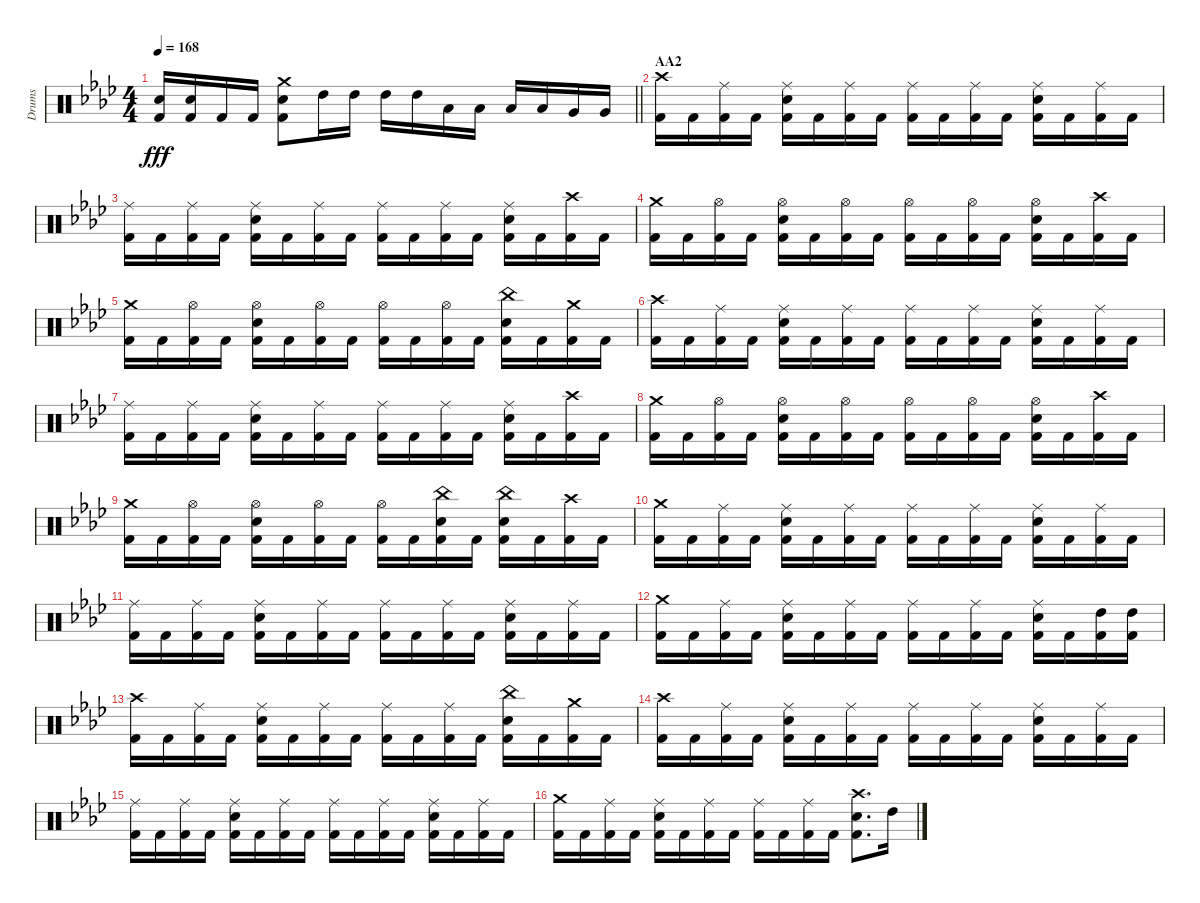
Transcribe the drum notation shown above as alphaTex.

\track ("Drums" "Drums") {instrument percussion}
\staff {score}
\articulation defaults
\ts (4 4)
\tempo 168
\clef neutral
\barLineRight lightlight
\ks fminor
("Snare (hit) 2" "Kick (hit) 2").16{dy fff} ("Snare (hit) 2" "Kick (hit) 2").16 "Kick (hit) 2".16 "Kick (hit) 2".16 ("Crash medium (hit)" "Snare (hit) 2" "Kick (hit) 2").8 "High Tom (hit)".16 "High Tom (hit)".16 "High Tom (hit)".16 "High Tom (hit)".16 "Low Tom (hit)".16 "Low Tom (hit)".16 "Low Tom (hit)".16 "Low Tom (hit)".16 "Very Low Tom (hit)".16 "Very Low Tom (hit)".16 |
\section ("" "AA2")
("Crash high (hit)" "Kick (hit) 2").16 "Kick (hit) 2".16 ("Ride (middle)" "Kick (hit) 2").16 "Kick (hit) 2".16 ("Snare (hit) 2" "Ride (middle)" "Kick (hit) 2").16 "Kick (hit) 2".16 ("Ride (middle)" "Kick (hit) 2").16 "Kick (hit) 2".16 ("Ride (middle)" "Kick (hit) 2").16 "Kick (hit) 2".16 ("Ride (middle)" "Kick (hit) 2").16 "Kick (hit) 2".16 ("Snare (hit) 2" "Ride (middle)" "Kick (hit) 2").16 "Kick (hit) 2".16 ("Ride (middle)" "Kick (hit) 2").16 "Kick (hit) 2".16 |
("Ride (middle)" "Kick (hit) 2").16 "Kick (hit) 2".16 ("Ride (middle)" "Kick (hit) 2").16 "Kick (hit) 2".16 ("Snare (hit) 2" "Ride (middle)" "Kick (hit) 2").16 "Kick (hit) 2".16 ("Ride (middle)" "Kick (hit) 2").16 "Kick (hit) 2".16 ("Ride (middle)" "Kick (hit) 2").16 "Kick (hit) 2".16 ("Ride (middle)" "Kick (hit) 2").16 "Kick (hit) 2".16 ("Snare (hit) 2" "Ride (middle)" "Kick (hit) 2").16 "Kick (hit) 2".16 ("Crash high (hit)" "Kick (hit) 2").16 "Kick (hit) 2".16 |
("Crash medium (hit)" "Kick (hit) 2").16 "Kick (hit) 2".16 ("Hi-Hat (open)" "Kick (hit) 2").16 "Kick (hit) 2".16 ("Snare (hit) 2" "Hi-Hat (open)" "Kick (hit) 2").16 "Kick (hit) 2".16 ("Hi-Hat (open)" "Kick (hit) 2").16 "Kick (hit) 2".16 ("Hi-Hat (open)" "Kick (hit) 2").16 "Kick (hit) 2".16 ("Hi-Hat (open)" "Kick (hit) 2").16 "Kick (hit) 2".16 ("Hi-Hat (open)" "Snare (hit) 2" "Kick (hit) 2").16 "Kick (hit) 2".16 ("Crash high (hit)" "Kick (hit) 2").16 "Kick (hit) 2".16 |
("Crash medium (hit)" "Kick (hit) 2").16 "Kick (hit) 2".16 ("Hi-Hat (open)" "Kick (hit) 2").16 "Kick (hit) 2".16 ("Snare (hit) 2" "Hi-Hat (open)" "Kick (hit) 2").16 "Kick (hit) 2".16 ("Hi-Hat (open)" "Kick (hit) 2").16 "Kick (hit) 2".16 ("Hi-Hat (open)" "Kick (hit) 2").16 "Kick (hit) 2".16 ("Hi-Hat (open)" "Kick (hit) 2").16 "Kick (hit) 2".16 ("China (hit)" "Snare (hit) 2" "Kick (hit) 2").16 "Kick (hit) 2".16 ("Crash medium (hit)" "Kick (hit) 2").16 "Kick (hit) 2".16 |
("Crash high (hit)" "Kick (hit) 2").16 "Kick (hit) 2".16 ("Ride (middle)" "Kick (hit) 2").16 "Kick (hit) 2".16 ("Snare (hit) 2" "Ride (middle)" "Kick (hit) 2").16 "Kick (hit) 2".16 ("Ride (middle)" "Kick (hit) 2").16 "Kick (hit) 2".16 ("Ride (middle)" "Kick (hit) 2").16 "Kick (hit) 2".16 ("Ride (middle)" "Kick (hit) 2").16 "Kick (hit) 2".16 ("Snare (hit) 2" "Ride (middle)" "Kick (hit) 2").16 "Kick (hit) 2".16 ("Ride (middle)" "Kick (hit) 2").16 "Kick (hit) 2".16 |
("Ride (middle)" "Kick (hit) 2").16 "Kick (hit) 2".16 ("Ride (middle)" "Kick (hit) 2").16 "Kick (hit) 2".16 ("Snare (hit) 2" "Ride (middle)" "Kick (hit) 2").16 "Kick (hit) 2".16 ("Ride (middle)" "Kick (hit) 2").16 "Kick (hit) 2".16 ("Ride (middle)" "Kick (hit) 2").16 "Kick (hit) 2".16 ("Ride (middle)" "Kick (hit) 2").16 "Kick (hit) 2".16 ("Snare (hit) 2" "Ride (middle)" "Kick (hit) 2").16 "Kick (hit) 2".16 ("Crash high (hit)" "Kick (hit) 2").16 "Kick (hit) 2".16 |
("Crash medium (hit)" "Kick (hit) 2").16 "Kick (hit) 2".16 ("Hi-Hat (open)" "Kick (hit) 2").16 "Kick (hit) 2".16 ("Snare (hit) 2" "Hi-Hat (open)" "Kick (hit) 2").16 "Kick (hit) 2".16 ("Hi-Hat (open)" "Kick (hit) 2").16 "Kick (hit) 2".16 ("Hi-Hat (open)" "Kick (hit) 2").16 "Kick (hit) 2".16 ("Hi-Hat (open)" "Kick (hit) 2").16 "Kick (hit) 2".16 ("Hi-Hat (open)" "Snare (hit) 2" "Kick (hit) 2").16 "Kick (hit) 2".16 ("Crash high (hit)" "Kick (hit) 2").16 "Kick (hit) 2".16 |
("Crash medium (hit)" "Kick (hit) 2").16 "Kick (hit) 2".16 ("Hi-Hat (open)" "Kick (hit) 2").16 "Kick (hit) 2".16 ("Hi-Hat (open)" "Snare (hit) 2" "Kick (hit) 2").16 "Kick (hit) 2".16 ("Hi-Hat (open)" "Kick (hit) 2").16 "Kick (hit) 2".16 ("Hi-Hat (open)" "Kick (hit) 2").16 "Kick (hit) 2".16 ("China (hit)" "Snare (hit) 2" "Kick (hit) 2").16 "Kick (hit) 2".16 ("China (hit)" "Snare (hit) 2" "Kick (hit) 2").16 "Kick (hit) 2".16 ("Crash high (hit)" "Kick (hit) 2").16 "Kick (hit) 2".16 |
("Crash medium (hit)" "Kick (hit) 2").16 "Kick (hit) 2".16 ("Ride (middle)" "Kick (hit) 2").16 "Kick (hit) 2".16 ("Snare (hit) 2" "Ride (middle)" "Kick (hit) 2").16 "Kick (hit) 2".16 ("Ride (middle)" "Kick (hit) 2").16 "Kick (hit) 2".16 ("Ride (middle)" "Kick (hit) 2").16 "Kick (hit) 2".16 ("Ride (middle)" "Kick (hit) 2").16 "Kick (hit) 2".16 ("Snare (hit) 2" "Ride (middle)" "Kick (hit) 2").16 "Kick (hit) 2".16 ("Ride (middle)" "Kick (hit) 2").16 "Kick (hit) 2".16 |
("Ride (middle)" "Kick (hit) 2").16 "Kick (hit) 2".16 ("Ride (middle)" "Kick (hit) 2").16 "Kick (hit) 2".16 ("Snare (hit) 2" "Ride (middle)" "Kick (hit) 2").16 "Kick (hit) 2".16 ("Ride (middle)" "Kick (hit) 2").16 "Kick (hit) 2".16 ("Ride (middle)" "Kick (hit) 2").16 "Kick (hit) 2".16 ("Ride (middle)" "Kick (hit) 2").16 "Kick (hit) 2".16 ("Snare (hit) 2" "Ride (middle)" "Kick (hit) 2").16 "Kick (hit) 2".16 ("Ride (middle)" "Kick (hit) 2").16 "Kick (hit) 2".16 |
("Crash medium (hit)" "Kick (hit) 2").16 "Kick (hit) 2".16 ("Ride (middle)" "Kick (hit) 2").16 "Kick (hit) 2".16 ("Snare (hit) 2" "Ride (middle)" "Kick (hit) 2").16 "Kick (hit) 2".16 ("Ride (middle)" "Kick (hit) 2").16 "Kick (hit) 2".16 ("Ride (middle)" "Kick (hit) 2").16 "Kick (hit) 2".16 ("Ride (middle)" "Kick (hit) 2").16 "Kick (hit) 2".16 ("Snare (hit) 2" "Ride (middle)" "Kick (hit) 2").16 "Kick (hit) 2".16 ("Kick (hit) 2" "High Tom (hit)").16 ("Kick (hit) 2" "High Tom (hit)").16 |
("Crash high (hit)" "Kick (hit) 2").16 "Kick (hit) 2".16 ("Ride (middle)" "Kick (hit) 2").16 "Kick (hit) 2".16 ("Snare (hit) 2" "Ride (middle)" "Kick (hit) 2").16 "Kick (hit) 2".16 ("Ride (middle)" "Kick (hit) 2").16 "Kick (hit) 2".16 ("Ride (middle)" "Kick (hit) 2").16 "Kick (hit) 2".16 ("Ride (middle)" "Kick (hit) 2").16 "Kick (hit) 2".16 ("China (hit)" "Snare (hit) 2" "Kick (hit) 2").16 "Kick (hit) 2".16 ("Crash medium (hit)" "Kick (hit) 2").16 "Kick (hit) 2".16 |
("Crash high (hit)" "Kick (hit) 2").16 "Kick (hit) 2".16 ("Ride (middle)" "Kick (hit) 2").16 "Kick (hit) 2".16 ("Snare (hit) 2" "Ride (middle)" "Kick (hit) 2").16 "Kick (hit) 2".16 ("Ride (middle)" "Kick (hit) 2").16 "Kick (hit) 2".16 ("Ride (middle)" "Kick (hit) 2").16 "Kick (hit) 2".16 ("Ride (middle)" "Kick (hit) 2").16 "Kick (hit) 2".16 ("Snare (hit) 2" "Ride (middle)" "Kick (hit) 2").16 "Kick (hit) 2".16 ("Ride (middle)" "Kick (hit) 2").16 "Kick (hit) 2".16 |
("Ride (middle)" "Kick (hit) 2").16 "Kick (hit) 2".16 ("Ride (middle)" "Kick (hit) 2").16 "Kick (hit) 2".16 ("Snare (hit) 2" "Ride (middle)" "Kick (hit) 2").16 "Kick (hit) 2".16 ("Ride (middle)" "Kick (hit) 2").16 "Kick (hit) 2".16 ("Ride (middle)" "Kick (hit) 2").16 "Kick (hit) 2".16 ("Ride (middle)" "Kick (hit) 2").16 "Kick (hit) 2".16 ("Snare (hit) 2" "Ride (middle)" "Kick (hit) 2").16 "Kick (hit) 2".16 ("Ride (middle)" "Kick (hit) 2").16 "Kick (hit) 2".16 |
("Crash medium (hit)" "Kick (hit) 2").16 "Kick (hit) 2".16 ("Ride (middle)" "Kick (hit) 2").16 "Kick (hit) 2".16 ("Snare (hit) 2" "Ride (middle)" "Kick (hit) 2").16 "Kick (hit) 2".16 ("Ride (middle)" "Kick (hit) 2").16 "Kick (hit) 2".16 ("Ride (middle)" "Kick (hit) 2").16 "Kick (hit) 2".16 ("Ride (middle)" "Kick (hit) 2").16 "Kick (hit) 2".16 ("Crash high (hit)" "Snare (hit) 2" "Kick (hit) 2").8{d} "High Tom (hit)".16
